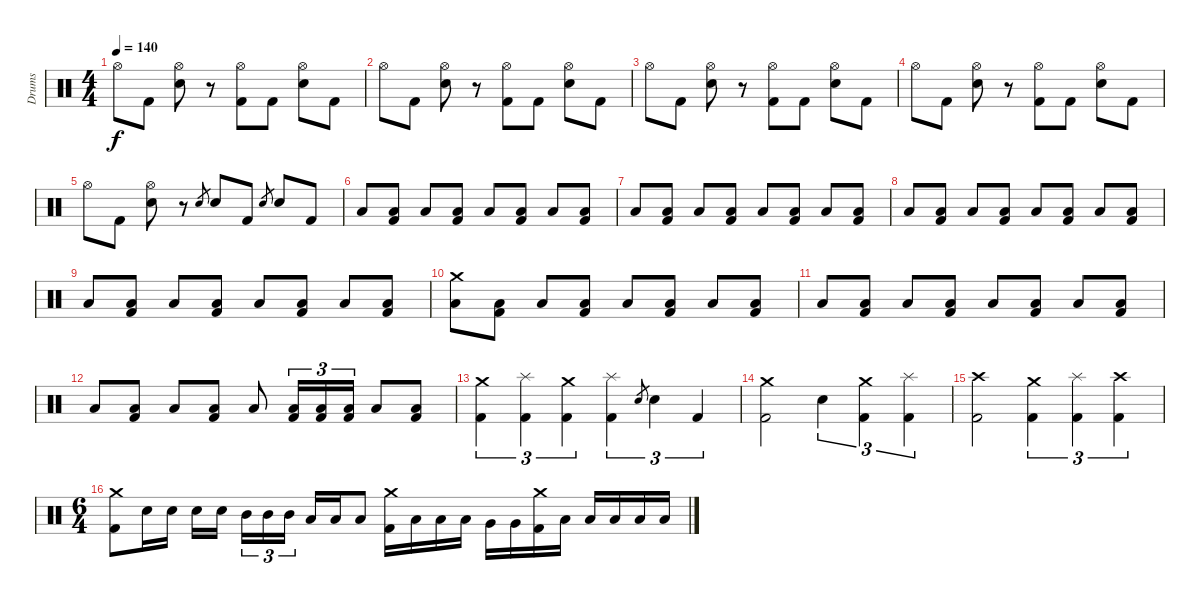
\track ("Drums" "Drums") {instrument percussion}
\staff {score}
\articulation defaults
\ts (4 4)
\tempo 140
\clef neutral
\ks c "Hi-Hat (open)".8{dy f} "Kick (hit) 2".8
("Hi-Hat (open)" "Electric Snare (hit)").8 r.8 ("Hi-Hat (open)" "Kick (hit) 2").8 "Kick (hit) 2".8 ("Hi-Hat (open)" "Electric Snare (hit)").8 "Kick (hit) 2".8 |
"Hi-Hat (open)".8 "Kick (hit) 2".8 ("Hi-Hat (open)" "Electric Snare (hit)").8 r.8 ("Hi-Hat (open)" "Kick (hit) 2").8 "Kick (hit) 2".8 ("Hi-Hat (open)" "Electric Snare (hit)").8 "Kick (hit) 2".8 |
"Hi-Hat (open)".8 "Kick (hit) 2".8 ("Hi-Hat (open)" "Electric Snare (hit)").8 r.8 ("Hi-Hat (open)" "Kick (hit) 2").8 "Kick (hit) 2".8 ("Hi-Hat (open)" "Electric Snare (hit)").8 "Kick (hit) 2".8 |
"Hi-Hat (open)".8 "Kick (hit) 2".8 ("Hi-Hat (open)" "Electric Snare (hit)").8 r.8 ("Hi-Hat (open)" "Kick (hit) 2").8 "Kick (hit) 2".8 ("Hi-Hat (open)" "Electric Snare (hit)").8 "Kick (hit) 2".8 |
"Hi-Hat (open)".8 "Kick (hit) 2".8 ("Hi-Hat (open)" "Electric Snare (hit)").8 r.8 "Electric Snare (hit)".8{gr} "Electric Snare (hit)".8 "Kick (hit) 2".8 "Electric Snare (hit)".8{gr} "Electric Snare (hit)".8 "Kick (hit) 2".8 |
"Low Tom (hit)".8 ("Low Floor Tom (hit)" "Kick (hit) 2").8 "Low Tom (hit)".8 ("Low Floor Tom (hit)" "Kick (hit) 2").8 "Low Tom (hit)".8 ("Low Floor Tom (hit)" "Kick (hit) 2").8 "Low Tom (hit)".8 ("Low Floor Tom (hit)" "Kick (hit) 2").8 |
"Low Tom (hit)".8 ("Low Floor Tom (hit)" "Kick (hit) 2").8 "Low Tom (hit)".8 ("Low Floor Tom (hit)" "Kick (hit) 2").8 "Low Tom (hit)".8 ("Low Floor Tom (hit)" "Kick (hit) 2").8 "Low Tom (hit)".8 ("Low Floor Tom (hit)" "Kick (hit) 2").8 |
"Low Tom (hit)".8 ("Low Floor Tom (hit)" "Kick (hit) 2").8 "Low Tom (hit)".8 ("Low Floor Tom (hit)" "Kick (hit) 2").8 "Low Tom (hit)".8 ("Low Floor Tom (hit)" "Kick (hit) 2").8 "Low Tom (hit)".8 ("Low Floor Tom (hit)" "Kick (hit) 2").8 |
"Low Tom (hit)".8 ("Low Floor Tom (hit)" "Kick (hit) 2").8 "Low Tom (hit)".8 ("Low Floor Tom (hit)" "Kick (hit) 2").8 "Low Tom (hit)".8 ("Low Floor Tom (hit)" "Kick (hit) 2").8 "Low Tom (hit)".8 ("Low Floor Tom (hit)" "Kick (hit) 2").8 |
("Crash medium (hit)" "Low Tom (hit)").8 ("Low Floor Tom (hit)" "Kick (hit) 2").8 "Low Tom (hit)".8 ("Low Floor Tom (hit)" "Kick (hit) 2").8 "Low Tom (hit)".8 ("Low Floor Tom (hit)" "Kick (hit) 2").8 "Low Tom (hit)".8 ("Low Floor Tom (hit)" "Kick (hit) 2").8 |
"Low Tom (hit)".8 ("Low Floor Tom (hit)" "Kick (hit) 2").8 "Low Tom (hit)".8 ("Low Floor Tom (hit)" "Kick (hit) 2").8 "Low Tom (hit)".8 ("Low Floor Tom (hit)" "Kick (hit) 2").8 "Low Tom (hit)".8 ("Low Floor Tom (hit)" "Kick (hit) 2").8 |
"Low Tom (hit)".8 ("Low Floor Tom (hit)" "Kick (hit) 2").8 "Low Tom (hit)".8 ("Low Floor Tom (hit)" "Kick (hit) 2").8 "Low Tom (hit)".8 ("Low Floor Tom (hit)" "Kick (hit) 2").16{tu (3 2)} ("Low Floor Tom (hit)" "Kick (hit) 2").16{tu (3 2)} ("Low Floor Tom (hit)" "Kick (hit) 2").16{tu (3 2)} "Low Tom (hit)".8 ("Low Floor Tom (hit)" "Kick (hit) 2").8 |
("Crash medium (hit)" "Kick (hit) 2").4{tu (3 2)} ("Splash (hit)" "Kick (hit) 2").4{tu (3 2)} ("Crash medium (hit)" "Kick (hit) 2").4{tu (3 2)} ("Splash (hit)" "Kick (hit) 2").4{tu (3 2)} "Electric Snare (hit)".8{gr} "Electric Snare (hit)".4{tu (3 2)} "Kick (hit) 2".4{tu (3 2)} |
("Crash medium (hit)" "Kick (hit) 2").2 "Electric Snare (hit)".4{tu (3 2)} ("Crash medium (hit)" "Kick (hit) 2").4{tu (3 2)} ("Splash (hit)" "Kick (hit) 2").4{tu (3 2)} |
("Crash high (hit)" "Kick (hit) 2").2 ("Crash medium (hit)" "Kick (hit) 2").4{tu (3 2)} ("Splash (hit)" "Kick (hit) 2").4{tu (3 2)} ("Crash high (hit)" "Kick (hit) 2").4{tu (3 2)} |
\ts (6 4)
("Crash medium (hit)" "Kick (hit) 2").8 "Electric Snare (hit)".16 "Electric Snare (hit)".16 "Electric Snare (hit)".16 "Electric Snare (hit)".16{beam splitsecondary} "Mid Tom (hit)".16{tu (3 2)} "Mid Tom (hit)".16{tu (3 2)} "Mid Tom (hit)".16{tu (3 2) beam splitsecondary} "Low Tom (hit)".16 "Low Tom (hit)".16 "Low Tom (hit)".8 ("Crash medium (hit)" "Kick (hit) 2").16 "Low Tom (hit)".16 "Low Tom (hit)".16 "Low Tom (hit)".16 "Very Low Tom (hit)".16 "Very Low Tom (hit)".16 ("Crash medium (hit)" "Kick (hit) 2").16 "Low Floor Tom (hit)".16 "Low Floor Tom (hit)".16 "Low Floor Tom (hit)".16 "Low Floor Tom (hit)".16 "Low Floor Tom (hit)".16
